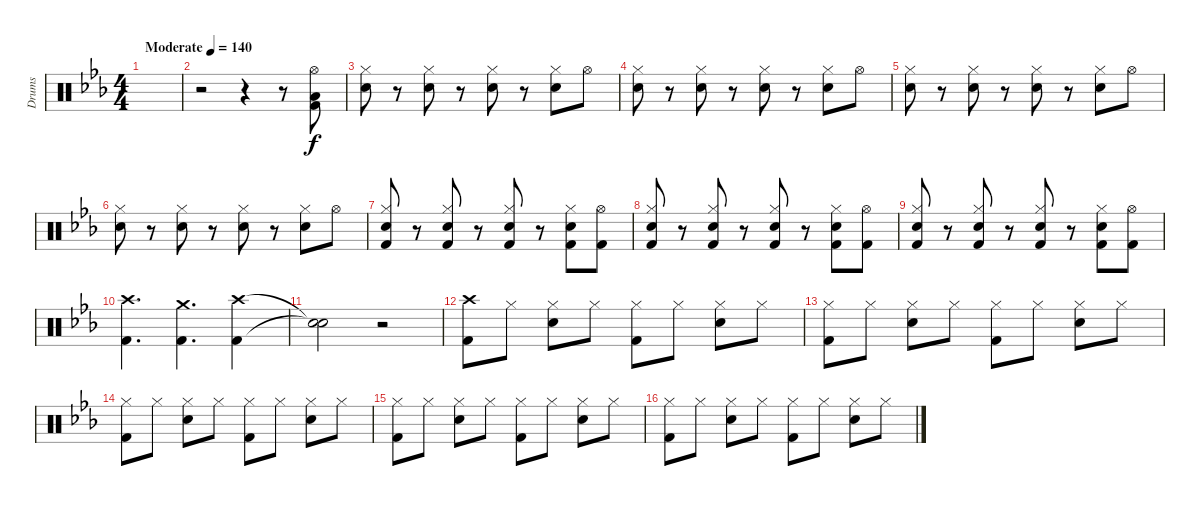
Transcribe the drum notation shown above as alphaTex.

\track ("Drums" "Drums") {instrument percussion}
\staff {score}
\articulation defaults
\ts (4 4)
\tempo (140 "Moderate")
\clef neutral
\ks eb
|
r.2 r.4 r.8 ("Hi-Hat (open)" "Low Floor Tom (hit)" "Kick (hit) 2").8 |
("Hi-Hat (closed)" "Snare (hit) 2").8 r.8 ("Hi-Hat (closed)" "Snare (hit) 2").8 r.8 ("Hi-Hat (closed)" "Snare (hit) 2").8 r.8 ("Hi-Hat (closed)" "Snare (hit) 2").8 "Hi-Hat (open)".8 |
("Hi-Hat (closed)" "Snare (hit) 2").8 r.8 ("Hi-Hat (closed)" "Snare (hit) 2").8 r.8 ("Hi-Hat (closed)" "Snare (hit) 2").8 r.8 ("Hi-Hat (closed)" "Snare (hit) 2").8 "Hi-Hat (open)".8 |
("Hi-Hat (closed)" "Snare (hit) 2").8 r.8 ("Hi-Hat (closed)" "Snare (hit) 2").8 r.8 ("Hi-Hat (closed)" "Snare (hit) 2").8 r.8 ("Hi-Hat (closed)" "Snare (hit) 2").8 "Hi-Hat (open)".8 |
("Hi-Hat (closed)" "Snare (hit) 2").8 r.8 ("Hi-Hat (closed)" "Snare (hit) 2").8 r.8 ("Hi-Hat (closed)" "Snare (hit) 2").8 r.8 ("Hi-Hat (closed)" "Snare (hit) 2").8 "Hi-Hat (open)".8 |
("Hi-Hat (closed)" "Snare (hit) 2" "Kick (hit) 2").8 r.8 ("Hi-Hat (closed)" "Snare (hit) 2" "Kick (hit) 2").8 r.8 ("Hi-Hat (closed)" "Snare (hit) 2" "Kick (hit) 2").8 r.8 ("Hi-Hat (closed)" "Snare (hit) 2" "Kick (hit) 2").8 ("Hi-Hat (open)" "Kick (hit) 2").8 |
("Hi-Hat (closed)" "Snare (hit) 2" "Kick (hit) 2").8 r.8 ("Hi-Hat (closed)" "Snare (hit) 2" "Kick (hit) 2").8 r.8 ("Hi-Hat (closed)" "Snare (hit) 2" "Kick (hit) 2").8 r.8 ("Hi-Hat (closed)" "Snare (hit) 2" "Kick (hit) 2").8 ("Hi-Hat (open)" "Kick (hit) 2").8 |
("Hi-Hat (closed)" "Snare (hit) 2" "Kick (hit) 2").8 r.8 ("Hi-Hat (closed)" "Snare (hit) 2" "Kick (hit) 2").8 r.8 ("Hi-Hat (closed)" "Snare (hit) 2" "Kick (hit) 2").8 r.8 ("Hi-Hat (closed)" "Snare (hit) 2" "Kick (hit) 2").8 ("Hi-Hat (open)" "Kick (hit) 2").8 |
("Crash high (hit)" "Kick (hit) 2").4{d} ("Crash medium (hit)" "Kick (hit) 2").4{d} ("Crash high (hit)" "Kick (hit) 2").4 |
("Snare (hit)"{t} "Snare (hit)"{t}).2 r.2 |
("Crash high (hit)" "Kick (hit) 2").8 "Hi-Hat (closed)".8 ("Hi-Hat (closed)" "Snare (hit) 2").8 "Hi-Hat (closed)".8 ("Hi-Hat (closed)" "Kick (hit) 2").8 "Hi-Hat (closed)".8 ("Hi-Hat (closed)" "Snare (hit) 2").8 "Hi-Hat (closed)".8 |
("Hi-Hat (closed)" "Kick (hit) 2").8 "Hi-Hat (closed)".8 ("Hi-Hat (closed)" "Snare (hit) 2").8 "Hi-Hat (closed)".8 ("Hi-Hat (closed)" "Kick (hit) 2").8 "Hi-Hat (closed)".8 ("Hi-Hat (closed)" "Snare (hit) 2").8 "Hi-Hat (closed)".8 |
("Hi-Hat (closed)" "Kick (hit) 2").8 "Hi-Hat (closed)".8 ("Hi-Hat (closed)" "Snare (hit) 2").8 "Hi-Hat (closed)".8 ("Hi-Hat (closed)" "Kick (hit) 2").8 "Hi-Hat (closed)".8 ("Hi-Hat (closed)" "Snare (hit) 2").8 "Hi-Hat (closed)".8 |
("Hi-Hat (closed)" "Kick (hit) 2").8 "Hi-Hat (closed)".8 ("Hi-Hat (closed)" "Snare (hit) 2").8 "Hi-Hat (closed)".8 ("Hi-Hat (closed)" "Kick (hit) 2").8 "Hi-Hat (closed)".8 ("Hi-Hat (closed)" "Snare (hit) 2").8 "Hi-Hat (closed)".8 |
("Hi-Hat (closed)" "Kick (hit) 2").8 "Hi-Hat (closed)".8 ("Hi-Hat (closed)" "Snare (hit) 2").8 "Hi-Hat (closed)".8 ("Hi-Hat (closed)" "Kick (hit) 2").8 "Hi-Hat (closed)".8 ("Hi-Hat (closed)" "Snare (hit) 2").8 "Hi-Hat (closed)".8
